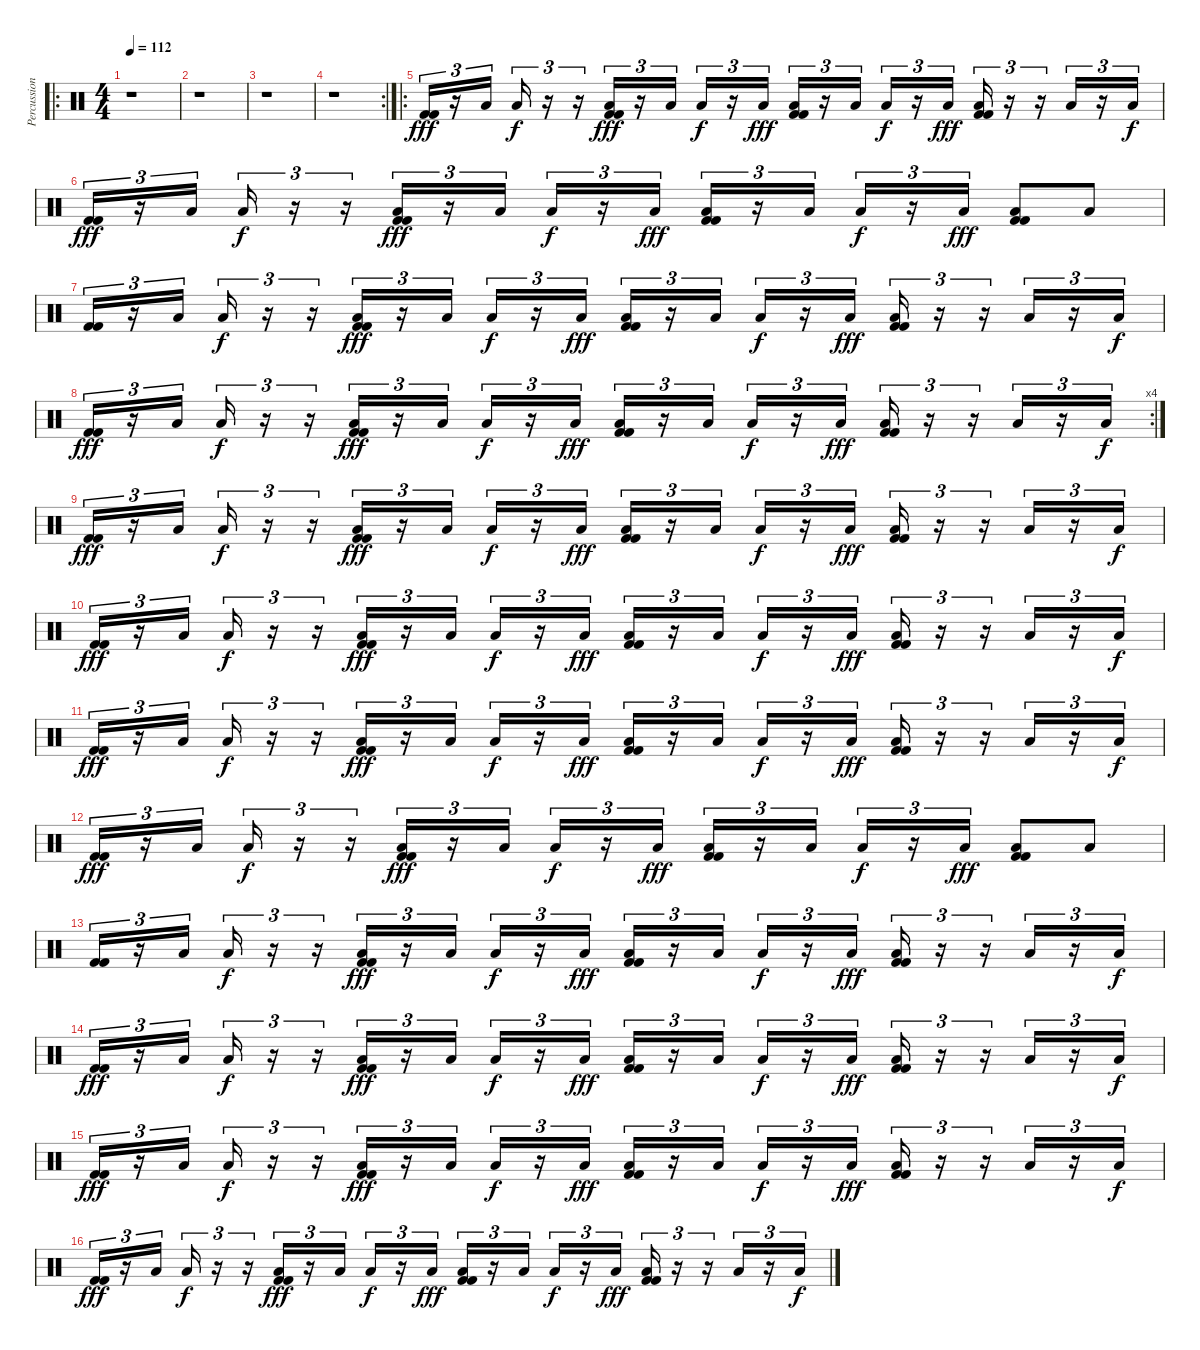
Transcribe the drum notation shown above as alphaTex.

\track ("Percussion" "Percussion") {instrument percussion}
\staff {score}
\articulation defaults
\ro
\ts (4 4)
\tempo 112
\clef neutral
\ks c
r.1{dy fff} |
r.1 |
r.1 |
\rc 2
r.1 |
\ro
("Kick (hit) 2" "Kick (hit) 2").16{tu (3 2)} r.16{tu (3 2)} "Low Floor Tom (hit)".16{tu (3 2)} "Low Floor Tom (hit)".16{tu (3 2) dy f} r.16{tu (3 2)} r.16{tu (3 2)} ("Kick (hit) 2" "Kick (hit) 2" "Low Floor Tom (hit)").16{tu (3 2) dy fff} r.16{tu (3 2)} "Low Floor Tom (hit)".16{tu (3 2)} "Low Floor Tom (hit)".16{tu (3 2) dy f} r.16{tu (3 2)} "Low Floor Tom (hit)".16{tu (3 2) dy fff} ("Kick (hit) 2" "Kick (hit) 2" "Low Floor Tom (hit)").16{tu (3 2)} r.16{tu (3 2)} "Low Floor Tom (hit)".16{tu (3 2)} "Low Floor Tom (hit)".16{tu (3 2) dy f} r.16{tu (3 2)} "Low Floor Tom (hit)".16{tu (3 2) dy fff} ("Kick (hit) 2" "Kick (hit) 2" "Low Floor Tom (hit)").16{tu (3 2)} r.16{tu (3 2)} r.16{tu (3 2)} "Low Floor Tom (hit)".16{tu (3 2)} r.16{tu (3 2)} "Low Floor Tom (hit)".16{tu (3 2) dy f} |
("Kick (hit) 2" "Kick (hit) 2").16{tu (3 2) dy fff} r.16{tu (3 2)} "Low Floor Tom (hit)".16{tu (3 2)} "Low Floor Tom (hit)".16{tu (3 2) dy f} r.16{tu (3 2)} r.16{tu (3 2)} ("Kick (hit) 2" "Kick (hit) 2" "Low Floor Tom (hit)").16{tu (3 2) dy fff} r.16{tu (3 2)} "Low Floor Tom (hit)".16{tu (3 2)} "Low Floor Tom (hit)".16{tu (3 2) dy f} r.16{tu (3 2)} "Low Floor Tom (hit)".16{tu (3 2) dy fff} ("Kick (hit) 2" "Kick (hit) 2" "Low Floor Tom (hit)").16{tu (3 2)} r.16{tu (3 2)} "Low Floor Tom (hit)".16{tu (3 2)} "Low Floor Tom (hit)".16{tu (3 2) dy f} r.16{tu (3 2)} "Low Floor Tom (hit)".16{tu (3 2) dy fff} ("Kick (hit) 2" "Kick (hit) 2" "Low Floor Tom (hit)").8 "Low Floor Tom (hit)".8 |
("Kick (hit) 2" "Kick (hit) 2").16{tu (3 2)} r.16{tu (3 2)} "Low Floor Tom (hit)".16{tu (3 2)} "Low Floor Tom (hit)".16{tu (3 2) dy f} r.16{tu (3 2)} r.16{tu (3 2)} ("Kick (hit) 2" "Kick (hit) 2" "Low Floor Tom (hit)").16{tu (3 2) dy fff} r.16{tu (3 2)} "Low Floor Tom (hit)".16{tu (3 2)} "Low Floor Tom (hit)".16{tu (3 2) dy f} r.16{tu (3 2)} "Low Floor Tom (hit)".16{tu (3 2) dy fff} ("Kick (hit) 2" "Kick (hit) 2" "Low Floor Tom (hit)").16{tu (3 2)} r.16{tu (3 2)} "Low Floor Tom (hit)".16{tu (3 2)} "Low Floor Tom (hit)".16{tu (3 2) dy f} r.16{tu (3 2)} "Low Floor Tom (hit)".16{tu (3 2) dy fff} ("Kick (hit) 2" "Kick (hit) 2" "Low Floor Tom (hit)").16{tu (3 2)} r.16{tu (3 2)} r.16{tu (3 2)} "Low Floor Tom (hit)".16{tu (3 2)} r.16{tu (3 2)} "Low Floor Tom (hit)".16{tu (3 2) dy f} |
\rc 4
("Kick (hit) 2" "Kick (hit) 2").16{tu (3 2) dy fff} r.16{tu (3 2)} "Low Floor Tom (hit)".16{tu (3 2)} "Low Floor Tom (hit)".16{tu (3 2) dy f} r.16{tu (3 2)} r.16{tu (3 2)} ("Kick (hit) 2" "Kick (hit) 2" "Low Floor Tom (hit)").16{tu (3 2) dy fff} r.16{tu (3 2)} "Low Floor Tom (hit)".16{tu (3 2)} "Low Floor Tom (hit)".16{tu (3 2) dy f} r.16{tu (3 2)} "Low Floor Tom (hit)".16{tu (3 2) dy fff} ("Kick (hit) 2" "Kick (hit) 2" "Low Floor Tom (hit)").16{tu (3 2)} r.16{tu (3 2)} "Low Floor Tom (hit)".16{tu (3 2)} "Low Floor Tom (hit)".16{tu (3 2) dy f} r.16{tu (3 2)} "Low Floor Tom (hit)".16{tu (3 2) dy fff} ("Kick (hit) 2" "Kick (hit) 2" "Low Floor Tom (hit)").16{tu (3 2)} r.16{tu (3 2)} r.16{tu (3 2)} "Low Floor Tom (hit)".16{tu (3 2)} r.16{tu (3 2)} "Low Floor Tom (hit)".16{tu (3 2) dy f} |
("Kick (hit) 2" "Kick (hit) 2").16{tu (3 2) dy fff} r.16{tu (3 2)} "Low Floor Tom (hit)".16{tu (3 2)} "Low Floor Tom (hit)".16{tu (3 2) dy f} r.16{tu (3 2)} r.16{tu (3 2)} ("Kick (hit) 2" "Kick (hit) 2" "Low Floor Tom (hit)").16{tu (3 2) dy fff} r.16{tu (3 2)} "Low Floor Tom (hit)".16{tu (3 2)} "Low Floor Tom (hit)".16{tu (3 2) dy f} r.16{tu (3 2)} "Low Floor Tom (hit)".16{tu (3 2) dy fff} ("Kick (hit) 2" "Kick (hit) 2" "Low Floor Tom (hit)").16{tu (3 2)} r.16{tu (3 2)} "Low Floor Tom (hit)".16{tu (3 2)} "Low Floor Tom (hit)".16{tu (3 2) dy f} r.16{tu (3 2)} "Low Floor Tom (hit)".16{tu (3 2) dy fff} ("Kick (hit) 2" "Kick (hit) 2" "Low Floor Tom (hit)").16{tu (3 2)} r.16{tu (3 2)} r.16{tu (3 2)} "Low Floor Tom (hit)".16{tu (3 2)} r.16{tu (3 2)} "Low Floor Tom (hit)".16{tu (3 2) dy f} |
("Kick (hit) 2" "Kick (hit) 2").16{tu (3 2) dy fff} r.16{tu (3 2)} "Low Floor Tom (hit)".16{tu (3 2)} "Low Floor Tom (hit)".16{tu (3 2) dy f} r.16{tu (3 2)} r.16{tu (3 2)} ("Kick (hit) 2" "Kick (hit) 2" "Low Floor Tom (hit)").16{tu (3 2) dy fff} r.16{tu (3 2)} "Low Floor Tom (hit)".16{tu (3 2)} "Low Floor Tom (hit)".16{tu (3 2) dy f} r.16{tu (3 2)} "Low Floor Tom (hit)".16{tu (3 2) dy fff} ("Kick (hit) 2" "Kick (hit) 2" "Low Floor Tom (hit)").16{tu (3 2)} r.16{tu (3 2)} "Low Floor Tom (hit)".16{tu (3 2)} "Low Floor Tom (hit)".16{tu (3 2) dy f} r.16{tu (3 2)} "Low Floor Tom (hit)".16{tu (3 2) dy fff} ("Kick (hit) 2" "Kick (hit) 2" "Low Floor Tom (hit)").16{tu (3 2)} r.16{tu (3 2)} r.16{tu (3 2)} "Low Floor Tom (hit)".16{tu (3 2)} r.16{tu (3 2)} "Low Floor Tom (hit)".16{tu (3 2) dy f} |
("Kick (hit) 2" "Kick (hit) 2").16{tu (3 2) dy fff} r.16{tu (3 2)} "Low Floor Tom (hit)".16{tu (3 2)} "Low Floor Tom (hit)".16{tu (3 2) dy f} r.16{tu (3 2)} r.16{tu (3 2)} ("Kick (hit) 2" "Kick (hit) 2" "Low Floor Tom (hit)").16{tu (3 2) dy fff} r.16{tu (3 2)} "Low Floor Tom (hit)".16{tu (3 2)} "Low Floor Tom (hit)".16{tu (3 2) dy f} r.16{tu (3 2)} "Low Floor Tom (hit)".16{tu (3 2) dy fff} ("Kick (hit) 2" "Kick (hit) 2" "Low Floor Tom (hit)").16{tu (3 2)} r.16{tu (3 2)} "Low Floor Tom (hit)".16{tu (3 2)} "Low Floor Tom (hit)".16{tu (3 2) dy f} r.16{tu (3 2)} "Low Floor Tom (hit)".16{tu (3 2) dy fff} ("Kick (hit) 2" "Kick (hit) 2" "Low Floor Tom (hit)").16{tu (3 2)} r.16{tu (3 2)} r.16{tu (3 2)} "Low Floor Tom (hit)".16{tu (3 2)} r.16{tu (3 2)} "Low Floor Tom (hit)".16{tu (3 2) dy f} |
("Kick (hit) 2" "Kick (hit) 2").16{tu (3 2) dy fff} r.16{tu (3 2)} "Low Floor Tom (hit)".16{tu (3 2)} "Low Floor Tom (hit)".16{tu (3 2) dy f} r.16{tu (3 2)} r.16{tu (3 2)} ("Kick (hit) 2" "Kick (hit) 2" "Low Floor Tom (hit)").16{tu (3 2) dy fff} r.16{tu (3 2)} "Low Floor Tom (hit)".16{tu (3 2)} "Low Floor Tom (hit)".16{tu (3 2) dy f} r.16{tu (3 2)} "Low Floor Tom (hit)".16{tu (3 2) dy fff} ("Kick (hit) 2" "Kick (hit) 2" "Low Floor Tom (hit)").16{tu (3 2)} r.16{tu (3 2)} "Low Floor Tom (hit)".16{tu (3 2)} "Low Floor Tom (hit)".16{tu (3 2) dy f} r.16{tu (3 2)} "Low Floor Tom (hit)".16{tu (3 2) dy fff} ("Kick (hit) 2" "Kick (hit) 2" "Low Floor Tom (hit)").8 "Low Floor Tom (hit)".8 |
("Kick (hit) 2" "Kick (hit) 2").16{tu (3 2)} r.16{tu (3 2)} "Low Floor Tom (hit)".16{tu (3 2)} "Low Floor Tom (hit)".16{tu (3 2) dy f} r.16{tu (3 2)} r.16{tu (3 2)} ("Kick (hit) 2" "Kick (hit) 2" "Low Floor Tom (hit)").16{tu (3 2) dy fff} r.16{tu (3 2)} "Low Floor Tom (hit)".16{tu (3 2)} "Low Floor Tom (hit)".16{tu (3 2) dy f} r.16{tu (3 2)} "Low Floor Tom (hit)".16{tu (3 2) dy fff} ("Kick (hit) 2" "Kick (hit) 2" "Low Floor Tom (hit)").16{tu (3 2)} r.16{tu (3 2)} "Low Floor Tom (hit)".16{tu (3 2)} "Low Floor Tom (hit)".16{tu (3 2) dy f} r.16{tu (3 2)} "Low Floor Tom (hit)".16{tu (3 2) dy fff} ("Kick (hit) 2" "Kick (hit) 2" "Low Floor Tom (hit)").16{tu (3 2)} r.16{tu (3 2)} r.16{tu (3 2)} "Low Floor Tom (hit)".16{tu (3 2)} r.16{tu (3 2)} "Low Floor Tom (hit)".16{tu (3 2) dy f} |
("Kick (hit) 2" "Kick (hit) 2").16{tu (3 2) dy fff} r.16{tu (3 2)} "Low Floor Tom (hit)".16{tu (3 2)} "Low Floor Tom (hit)".16{tu (3 2) dy f} r.16{tu (3 2)} r.16{tu (3 2)} ("Kick (hit) 2" "Kick (hit) 2" "Low Floor Tom (hit)").16{tu (3 2) dy fff} r.16{tu (3 2)} "Low Floor Tom (hit)".16{tu (3 2)} "Low Floor Tom (hit)".16{tu (3 2) dy f} r.16{tu (3 2)} "Low Floor Tom (hit)".16{tu (3 2) dy fff} ("Kick (hit) 2" "Kick (hit) 2" "Low Floor Tom (hit)").16{tu (3 2)} r.16{tu (3 2)} "Low Floor Tom (hit)".16{tu (3 2)} "Low Floor Tom (hit)".16{tu (3 2) dy f} r.16{tu (3 2)} "Low Floor Tom (hit)".16{tu (3 2) dy fff} ("Kick (hit) 2" "Kick (hit) 2" "Low Floor Tom (hit)").16{tu (3 2)} r.16{tu (3 2)} r.16{tu (3 2)} "Low Floor Tom (hit)".16{tu (3 2)} r.16{tu (3 2)} "Low Floor Tom (hit)".16{tu (3 2) dy f} |
("Kick (hit) 2" "Kick (hit) 2").16{tu (3 2) dy fff} r.16{tu (3 2)} "Low Floor Tom (hit)".16{tu (3 2)} "Low Floor Tom (hit)".16{tu (3 2) dy f} r.16{tu (3 2)} r.16{tu (3 2)} ("Kick (hit) 2" "Kick (hit) 2" "Low Floor Tom (hit)").16{tu (3 2) dy fff} r.16{tu (3 2)} "Low Floor Tom (hit)".16{tu (3 2)} "Low Floor Tom (hit)".16{tu (3 2) dy f} r.16{tu (3 2)} "Low Floor Tom (hit)".16{tu (3 2) dy fff} ("Kick (hit) 2" "Kick (hit) 2" "Low Floor Tom (hit)").16{tu (3 2)} r.16{tu (3 2)} "Low Floor Tom (hit)".16{tu (3 2)} "Low Floor Tom (hit)".16{tu (3 2) dy f} r.16{tu (3 2)} "Low Floor Tom (hit)".16{tu (3 2) dy fff} ("Kick (hit) 2" "Kick (hit) 2" "Low Floor Tom (hit)").16{tu (3 2)} r.16{tu (3 2)} r.16{tu (3 2)} "Low Floor Tom (hit)".16{tu (3 2)} r.16{tu (3 2)} "Low Floor Tom (hit)".16{tu (3 2) dy f} |
("Kick (hit) 2" "Kick (hit) 2").16{tu (3 2) dy fff} r.16{tu (3 2)} "Low Floor Tom (hit)".16{tu (3 2)} "Low Floor Tom (hit)".16{tu (3 2) dy f} r.16{tu (3 2)} r.16{tu (3 2)} ("Kick (hit) 2" "Kick (hit) 2" "Low Floor Tom (hit)").16{tu (3 2) dy fff} r.16{tu (3 2)} "Low Floor Tom (hit)".16{tu (3 2)} "Low Floor Tom (hit)".16{tu (3 2) dy f} r.16{tu (3 2)} "Low Floor Tom (hit)".16{tu (3 2) dy fff} ("Kick (hit) 2" "Kick (hit) 2" "Low Floor Tom (hit)").16{tu (3 2)} r.16{tu (3 2)} "Low Floor Tom (hit)".16{tu (3 2)} "Low Floor Tom (hit)".16{tu (3 2) dy f} r.16{tu (3 2)} "Low Floor Tom (hit)".16{tu (3 2) dy fff} ("Kick (hit) 2" "Kick (hit) 2" "Low Floor Tom (hit)").16{tu (3 2)} r.16{tu (3 2)} r.16{tu (3 2)} "Low Floor Tom (hit)".16{tu (3 2)} r.16{tu (3 2)} "Low Floor Tom (hit)".16{tu (3 2) dy f}
